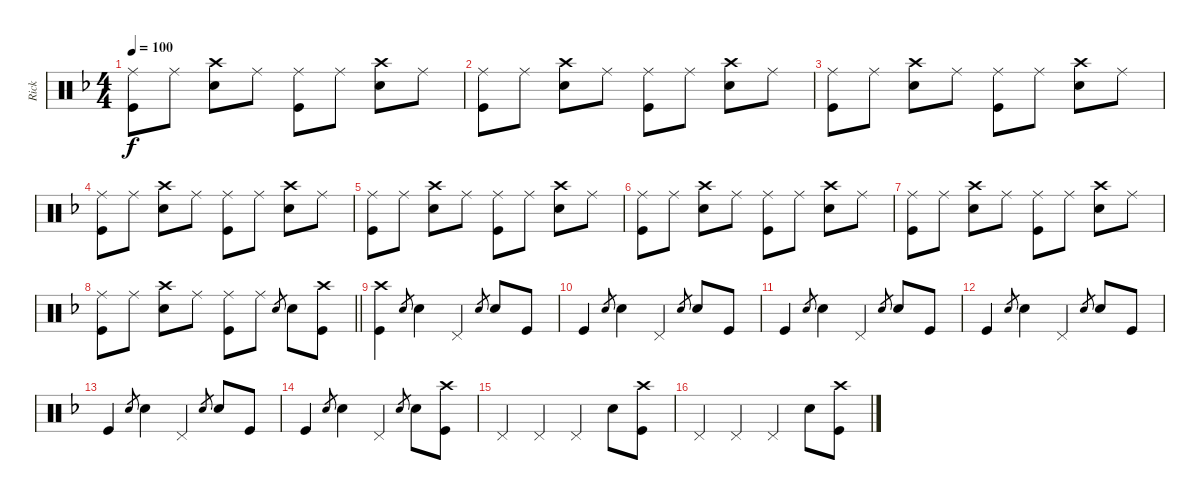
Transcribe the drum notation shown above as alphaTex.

\track ("Rick" "Rick") {instrument percussion}
\staff {score}
\articulation defaults
\ts (4 4)
\tempo 100
\clef neutral
\ks dminor
("Ride (middle)" "Kick (hit)").8{dy f} "Ride (middle)".8 ("Crash high (hit)" "Snare (hit) 2").8 "Ride (middle)".8 ("Ride (middle)" "Kick (hit)").8 "Ride (middle)".8 ("Crash high (hit)" "Snare (hit) 2").8 "Ride (middle)".8 |
("Ride (middle)" "Kick (hit)").8 "Ride (middle)".8 ("Crash high (hit)" "Snare (hit) 2").8 "Ride (middle)".8 ("Ride (middle)" "Kick (hit)").8 "Ride (middle)".8 ("Crash high (hit)" "Snare (hit) 2").8 "Ride (middle)".8 |
("Ride (middle)" "Kick (hit)").8 "Ride (middle)".8 ("Crash high (hit)" "Snare (hit) 2").8 "Ride (middle)".8 ("Ride (middle)" "Kick (hit)").8 "Ride (middle)".8 ("Crash high (hit)" "Snare (hit) 2").8 "Ride (middle)".8 |
("Ride (middle)" "Kick (hit)").8 "Ride (middle)".8 ("Crash high (hit)" "Snare (hit) 2").8 "Ride (middle)".8 ("Ride (middle)" "Kick (hit)").8 "Ride (middle)".8 ("Crash high (hit)" "Snare (hit) 2").8 "Ride (middle)".8 |
("Ride (middle)" "Kick (hit)").8 "Ride (middle)".8 ("Crash high (hit)" "Snare (hit) 2").8 "Ride (middle)".8 ("Ride (middle)" "Kick (hit)").8 "Ride (middle)".8 ("Crash high (hit)" "Snare (hit) 2").8 "Ride (middle)".8 |
("Ride (middle)" "Kick (hit)").8 "Ride (middle)".8 ("Crash high (hit)" "Snare (hit) 2").8 "Ride (middle)".8 ("Ride (middle)" "Kick (hit)").8 "Ride (middle)".8 ("Crash high (hit)" "Snare (hit) 2").8 "Ride (middle)".8 |
("Ride (middle)" "Kick (hit)").8 "Ride (middle)".8 ("Crash high (hit)" "Snare (hit) 2").8 "Ride (middle)".8 ("Ride (middle)" "Kick (hit)").8 "Ride (middle)".8 ("Crash high (hit)" "Snare (hit) 2").8 "Ride (middle)".8 |
\barLineRight lightlight
("Ride (middle)" "Kick (hit)").8 "Ride (middle)".8 ("Crash high (hit)" "Snare (hit) 2").8 "Ride (middle)".8 ("Ride (middle)" "Kick (hit)").8 "Ride (middle)".8 "Snare (hit) 2".8{gr} "Snare (hit) 2".8 ("Crash high (hit)" "Kick (hit)").8 |
("Crash high (hit)" "Kick (hit)").4 "Snare (hit) 2".8{gr} "Snare (hit) 2".4 "Pedal Hi-Hat (hit)".4 "Snare (hit) 2".8{gr} "Snare (hit) 2".8 "Kick (hit)".8 |
"Kick (hit)".4 "Snare (hit) 2".8{gr} "Snare (hit) 2".4 "Pedal Hi-Hat (hit)".4 "Snare (hit) 2".8{gr} "Snare (hit) 2".8 "Kick (hit)".8 |
"Kick (hit)".4 "Snare (hit) 2".8{gr} "Snare (hit) 2".4 "Pedal Hi-Hat (hit)".4 "Snare (hit) 2".8{gr} "Snare (hit) 2".8 "Kick (hit)".8 |
"Kick (hit)".4 "Snare (hit) 2".8{gr} "Snare (hit) 2".4 "Pedal Hi-Hat (hit)".4 "Snare (hit) 2".8{gr} "Snare (hit) 2".8 "Kick (hit)".8 |
"Kick (hit)".4 "Snare (hit) 2".8{gr} "Snare (hit) 2".4 "Pedal Hi-Hat (hit)".4 "Snare (hit) 2".8{gr} "Snare (hit) 2".8 "Kick (hit)".8 |
"Kick (hit)".4 "Snare (hit) 2".8{gr} "Snare (hit) 2".4 "Pedal Hi-Hat (hit)".4 "Snare (hit) 2".8{gr} "Snare (hit) 2".8 ("Crash high (hit)" "Kick (hit)").8 |
"Pedal Hi-Hat (hit)".4 "Pedal Hi-Hat (hit)".4 "Pedal Hi-Hat (hit)".4 "Snare (hit) 2".8 ("Crash high (hit)" "Kick (hit)").8 |
"Pedal Hi-Hat (hit)".4 "Pedal Hi-Hat (hit)".4 "Pedal Hi-Hat (hit)".4 "Snare (hit) 2".8 ("Crash high (hit)" "Kick (hit)").8
